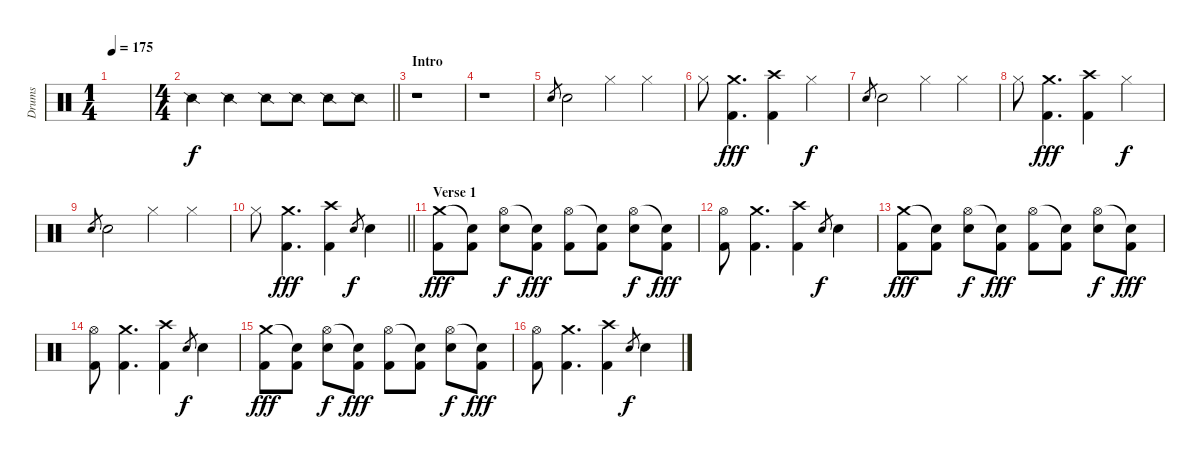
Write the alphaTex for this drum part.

\track ("Drums" "Drums") {instrument percussion}
\staff {score}
\articulation defaults
\ts (1 4)
\tempo 175
\clef neutral
\ks c
|
\ts (4 4)
\barLineRight lightlight "Snare (side stick) 2".4 "Snare (side stick) 2".4 "Snare (side stick) 2".8 "Snare (side stick) 2".8 "Snare (side stick) 2".8 "Snare (side stick) 2".8
|
\section ("" "Intro")
r.1 |
r.1 |
"Snare (hit) 2".8{gr} "Snare (hit) 2".2 "Hi-Hat (closed)".4 "Hi-Hat (closed)".4 |
"Hi-Hat (closed)".8 ("Crash medium (hit)" "Kick (hit) 2").4{d dy fff} ("Crash high (hit)" "Kick (hit) 2").4 "Hi-Hat (closed)".4{dy f} |
"Snare (hit) 2".8{gr} "Snare (hit) 2".2 "Hi-Hat (closed)".4 "Hi-Hat (closed)".4 |
"Hi-Hat (closed)".8 ("Crash medium (hit)" "Kick (hit) 2").4{d dy fff} ("Crash high (hit)" "Kick (hit) 2").4 "Hi-Hat (closed)".4{dy f} |
"Snare (hit) 2".8{gr} "Snare (hit) 2".2 "Hi-Hat (closed)".4 "Hi-Hat (closed)".4 |
\barLineRight lightlight "Hi-Hat (closed)".8
("Crash medium (hit)" "Kick (hit) 2").4{d dy fff} ("Crash high (hit)" "Kick (hit) 2").4 "Snare (hit) 2".8{gr dy f} "Snare (hit) 2".4 |
\section ("" "Verse 1")
("Crash medium (hit)" "Kick (hit) 2").8{dy fff} ("Snare (hit)"{t} "Kick (hit) 2").8 ("Hi-Hat (open)" "Snare (hit) 2").8{dy f} ("Snare (hit)"{t} "Kick (hit) 2").8{dy fff} ("Hi-Hat (open)" "Kick (hit) 2").8 ("Snare (hit)"{t} "Kick (hit) 2").8 ("Hi-Hat (open)" "Snare (hit) 2").8{dy f} ("Snare (hit)"{t} "Kick (hit) 2").8{dy fff} |
("Hi-Hat (open)" "Kick (hit) 2").8 ("Crash medium (hit)" "Kick (hit) 2").4{d} ("Crash high (hit)" "Kick (hit) 2").4 "Snare (hit) 2".8{gr dy f} "Snare (hit) 2".4 |
("Crash medium (hit)" "Kick (hit) 2").8{dy fff} ("Snare (hit)"{t} "Kick (hit) 2").8 ("Hi-Hat (open)" "Snare (hit) 2").8{dy f} ("Snare (hit)"{t} "Kick (hit) 2").8{dy fff} ("Hi-Hat (open)" "Kick (hit) 2").8 ("Snare (hit)"{t} "Kick (hit) 2").8 ("Hi-Hat (open)" "Snare (hit) 2").8{dy f} ("Snare (hit)"{t} "Kick (hit) 2").8{dy fff} |
("Hi-Hat (open)" "Kick (hit) 2").8 ("Crash medium (hit)" "Kick (hit) 2").4{d} ("Crash high (hit)" "Kick (hit) 2").4 "Snare (hit) 2".8{gr dy f} "Snare (hit) 2".4 |
("Crash medium (hit)" "Kick (hit) 2").8{dy fff} ("Snare (hit)"{t} "Kick (hit) 2").8 ("Hi-Hat (open)" "Snare (hit) 2").8{dy f} ("Snare (hit)"{t} "Kick (hit) 2").8{dy fff} ("Hi-Hat (open)" "Kick (hit) 2").8 ("Snare (hit)"{t} "Kick (hit) 2").8 ("Hi-Hat (open)" "Snare (hit) 2").8{dy f} ("Snare (hit)"{t} "Kick (hit) 2").8{dy fff} |
("Hi-Hat (open)" "Kick (hit) 2").8 ("Crash medium (hit)" "Kick (hit) 2").4{d} ("Crash high (hit)" "Kick (hit) 2").4 "Snare (hit) 2".8{gr dy f} "Snare (hit) 2".4
